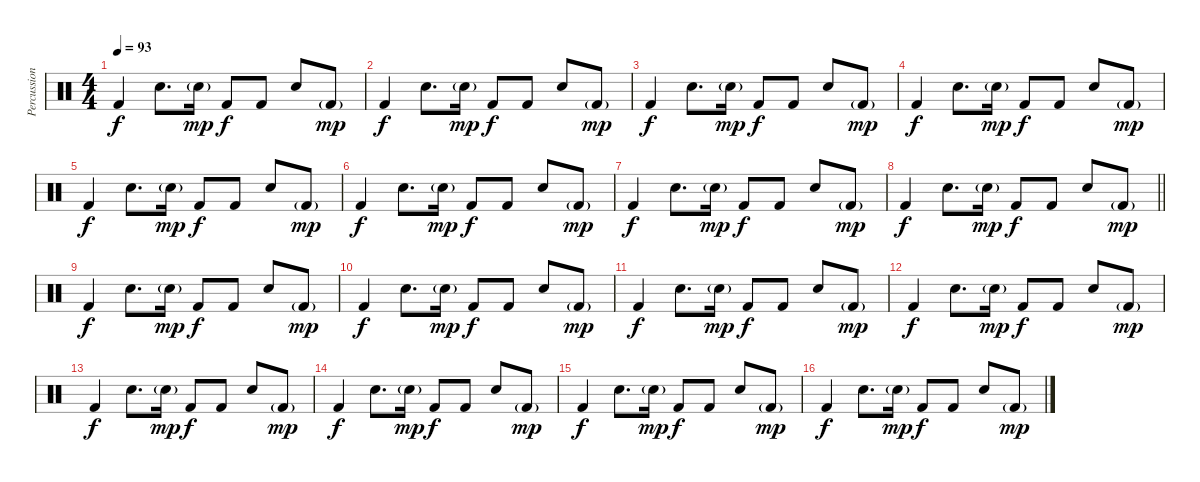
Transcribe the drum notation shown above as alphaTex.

\track ("Percussion" "Percussion") {instrument percussion}
\staff {score}
\articulation defaults
\ts (4 4)
\tempo 93
\clef neutral
\ks c "Kick (hit) 2".4{dy f} "Snare (hit) 2".8{d} "Snare (hit) 2"{g}.16{dy mp} "Kick (hit) 2".8{dy f} "Kick (hit) 2".8 "Snare (hit) 2".8 "Kick (hit) 2"{g}.8{dy mp}
|
"Kick (hit) 2".4{dy f} "Snare (hit) 2".8{d} "Snare (hit) 2"{g}.16{dy mp} "Kick (hit) 2".8{dy f} "Kick (hit) 2".8 "Snare (hit) 2".8 "Kick (hit) 2"{g}.8{dy mp} |
"Kick (hit) 2".4{dy f} "Snare (hit) 2".8{d} "Snare (hit) 2"{g}.16{dy mp} "Kick (hit) 2".8{dy f} "Kick (hit) 2".8 "Snare (hit) 2".8 "Kick (hit) 2"{g}.8{dy mp} |
"Kick (hit) 2".4{dy f} "Snare (hit) 2".8{d} "Snare (hit) 2"{g}.16{dy mp} "Kick (hit) 2".8{dy f} "Kick (hit) 2".8 "Snare (hit) 2".8 "Kick (hit) 2"{g}.8{dy mp} |
"Kick (hit) 2".4{dy f} "Snare (hit) 2".8{d} "Snare (hit) 2"{g}.16{dy mp} "Kick (hit) 2".8{dy f} "Kick (hit) 2".8 "Snare (hit) 2".8 "Kick (hit) 2"{g}.8{dy mp} |
"Kick (hit) 2".4{dy f} "Snare (hit) 2".8{d} "Snare (hit) 2"{g}.16{dy mp} "Kick (hit) 2".8{dy f} "Kick (hit) 2".8 "Snare (hit) 2".8 "Kick (hit) 2"{g}.8{dy mp} |
"Kick (hit) 2".4{dy f} "Snare (hit) 2".8{d} "Snare (hit) 2"{g}.16{dy mp} "Kick (hit) 2".8{dy f} "Kick (hit) 2".8 "Snare (hit) 2".8 "Kick (hit) 2"{g}.8{dy mp} |
\barLineRight lightlight "Kick (hit) 2".4{dy f} "Snare (hit) 2".8{d} "Snare (hit) 2"{g}.16{dy mp} "Kick (hit) 2".8{dy f} "Kick (hit) 2".8 "Snare (hit) 2".8 "Kick (hit) 2"{g}.8{dy mp}
|
"Kick (hit) 2".4{dy f} "Snare (hit) 2".8{d} "Snare (hit) 2"{g}.16{dy mp} "Kick (hit) 2".8{dy f} "Kick (hit) 2".8 "Snare (hit) 2".8 "Kick (hit) 2"{g}.8{dy mp} |
"Kick (hit) 2".4{dy f} "Snare (hit) 2".8{d} "Snare (hit) 2"{g}.16{dy mp} "Kick (hit) 2".8{dy f} "Kick (hit) 2".8 "Snare (hit) 2".8 "Kick (hit) 2"{g}.8{dy mp} |
"Kick (hit) 2".4{dy f} "Snare (hit) 2".8{d} "Snare (hit) 2"{g}.16{dy mp} "Kick (hit) 2".8{dy f} "Kick (hit) 2".8 "Snare (hit) 2".8 "Kick (hit) 2"{g}.8{dy mp} |
"Kick (hit) 2".4{dy f} "Snare (hit) 2".8{d} "Snare (hit) 2"{g}.16{dy mp} "Kick (hit) 2".8{dy f} "Kick (hit) 2".8 "Snare (hit) 2".8 "Kick (hit) 2"{g}.8{dy mp} |
"Kick (hit) 2".4{dy f} "Snare (hit) 2".8{d} "Snare (hit) 2"{g}.16{dy mp} "Kick (hit) 2".8{dy f} "Kick (hit) 2".8 "Snare (hit) 2".8 "Kick (hit) 2"{g}.8{dy mp} |
"Kick (hit) 2".4{dy f} "Snare (hit) 2".8{d} "Snare (hit) 2"{g}.16{dy mp} "Kick (hit) 2".8{dy f} "Kick (hit) 2".8 "Snare (hit) 2".8 "Kick (hit) 2"{g}.8{dy mp} |
"Kick (hit) 2".4{dy f} "Snare (hit) 2".8{d} "Snare (hit) 2"{g}.16{dy mp} "Kick (hit) 2".8{dy f} "Kick (hit) 2".8 "Snare (hit) 2".8 "Kick (hit) 2"{g}.8{dy mp} |
"Kick (hit) 2".4{dy f} "Snare (hit) 2".8{d} "Snare (hit) 2"{g}.16{dy mp} "Kick (hit) 2".8{dy f} "Kick (hit) 2".8 "Snare (hit) 2".8 "Kick (hit) 2"{g}.8{dy mp}
